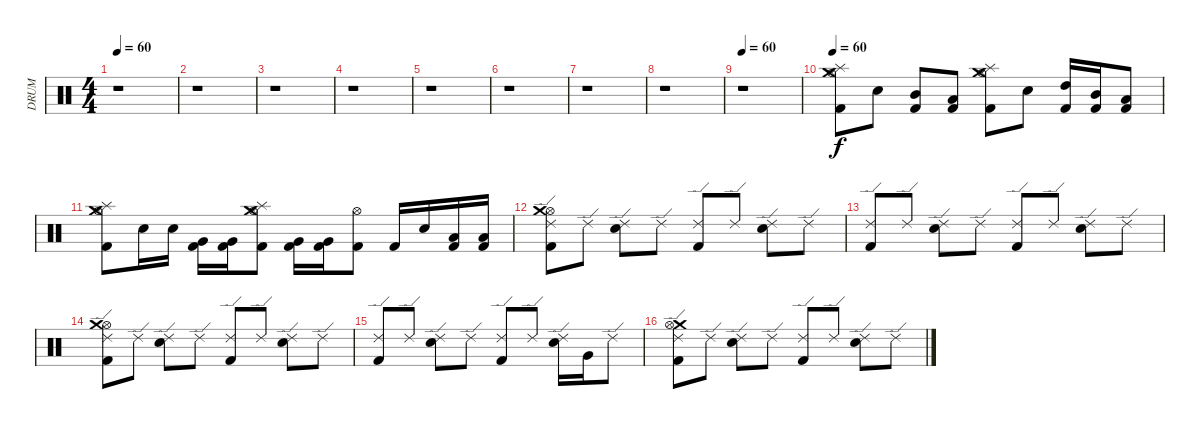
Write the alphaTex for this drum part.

\track (" DRUM" " DRUM") {instrument percussion}
\staff {score}
\articulation defaults
\ts (4 4)
\tempo 60
\clef neutral
\ks c
r.1{dy f} |
r.1 |
r.1 |
r.1 |
r.1 |
r.1 |
r.1 |
r.1 |
\tempo 60
r.1 |
\tempo 60
("Crash medium (hit)" "Splash (hit)" "Hi-Hat (open)" "Kick (hit) 2").8{volume 16} "Electric Snare (hit)".8 ("Mid Tom (hit)" "Kick (hit) 2").8 ("Kick (hit) 2" "Low Tom (hit)").8 ("Hi-Hat (open)" "Crash medium (hit)" "Splash (hit)" "Kick (hit) 2").8 "Electric Snare (hit)".8 ("High Tom (hit)" "Kick (hit) 2").16 ("Mid Tom (hit)" "Kick (hit) 2").16 ("Low Tom (hit)" "Kick (hit) 2").8 |
("Hi-Hat (open)" "Crash medium (hit)" "Splash (hit)" "Kick (hit) 2").8 "Electric Snare (hit)".16 "Electric Snare (hit)".16 ("Very Low Tom (hit)" "Kick (hit) 2").16 ("Very Low Tom (hit)" "Kick (hit) 2").16 ("Splash (hit)" "Crash medium (hit)" "Hi-Hat (open)" "Kick (hit) 2").8 ("Kick (hit) 2" "Very Low Tom (hit)").16 ("Kick (hit) 2" "Very Low Tom (hit)").16 ("Hi-Hat (open)" "Kick (hit) 2").8 "Kick (hit) 2".16 "Electric Snare (hit)".16 ("Kick (hit) 2" "Low Tom (hit)").16 ("Kick (hit) 2" "Low Tom (hit)").16 |
("Hi-Hat (open)" "Crash medium (hit)" "Kick (hit) 2" "Ride (edge) 2").8 "Ride (edge) 2".8 ("Electric Snare (hit)" "Ride (edge) 2").8 "Ride (edge) 2".8 ("Kick (hit) 2" "Ride (edge) 2").8 "Ride (edge) 2".8 ("Electric Snare (hit)" "Ride (edge) 2").8 "Ride (edge) 2".8 |
("Kick (hit) 2" "Ride (edge) 2").8 "Ride (edge) 2".8 ("Electric Snare (hit)" "Ride (edge) 2").8 "Ride (edge) 2".8 ("Kick (hit) 2" "Ride (edge) 2").8 "Ride (edge) 2".8 ("Electric Snare (hit)" "Ride (edge) 2").8 "Ride (edge) 2".8 |
("Hi-Hat (open)" "Crash medium (hit)" "Kick (hit) 2" "Ride (edge) 2").8 "Ride (edge) 2".8 ("Electric Snare (hit)" "Ride (edge) 2").8 "Ride (edge) 2".8 ("Kick (hit) 2" "Ride (edge) 2").8 "Ride (edge) 2".8 ("Electric Snare (hit)" "Ride (edge) 2").8 "Ride (edge) 2".8 |
("Kick (hit) 2" "Ride (edge) 2").8 "Ride (edge) 2".8 ("Electric Snare (hit)" "Ride (edge) 2").8 "Ride (edge) 2".8 ("Kick (hit) 2" "Ride (edge) 2").8 "Ride (edge) 2".8 ("Electric Snare (hit)" "Ride (edge) 2").16 "Very Low Tom (hit)".16 "Ride (edge) 2".8 |
("Crash medium (hit)" "Hi-Hat (open)" "Kick (hit) 2" "Ride (edge) 2").8 "Ride (edge) 2".8 ("Electric Snare (hit)" "Ride (edge) 2").8 "Ride (edge) 2".8 ("Kick (hit) 2" "Ride (edge) 2").8 "Ride (edge) 2".8 ("Electric Snare (hit)" "Ride (edge) 2").8 "Ride (edge) 2".8
